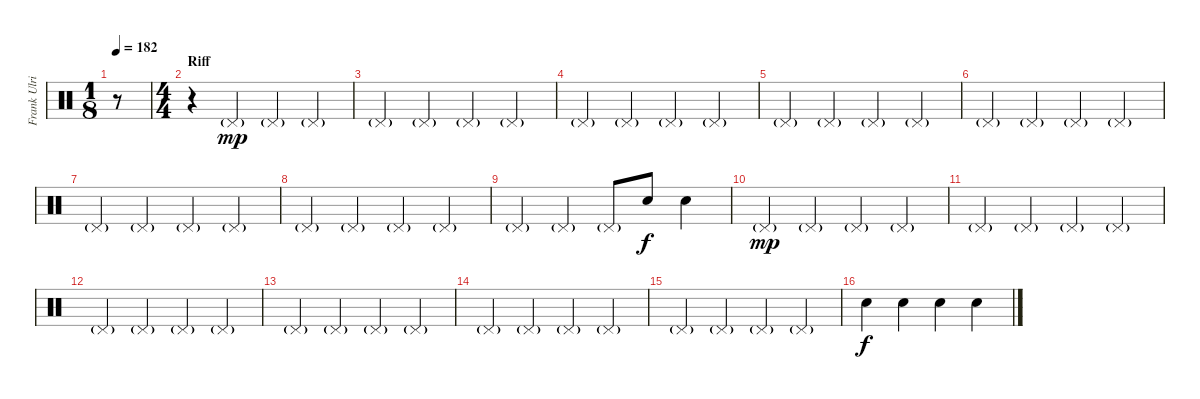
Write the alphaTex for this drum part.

\track ("Frank Ulrich" "Frank Ulri") {instrument percussion}
\staff {score}
\articulation defaults
\ts (1 8)
\tempo 182
\clef neutral
\ks c
r.8{dy mp} |
\ts (4 4)
\section ("" "Riff")
r.4 "Pedal Hi-Hat (hit)"{g}.4 "Pedal Hi-Hat (hit)"{g}.4 "Pedal Hi-Hat (hit)"{g}.4 |
"Pedal Hi-Hat (hit)"{g}.4 "Pedal Hi-Hat (hit)"{g}.4 "Pedal Hi-Hat (hit)"{g}.4 "Pedal Hi-Hat (hit)"{g}.4 |
"Pedal Hi-Hat (hit)"{g}.4 "Pedal Hi-Hat (hit)"{g}.4 "Pedal Hi-Hat (hit)"{g}.4 "Pedal Hi-Hat (hit)"{g}.4 |
"Pedal Hi-Hat (hit)"{g}.4 "Pedal Hi-Hat (hit)"{g}.4 "Pedal Hi-Hat (hit)"{g}.4 "Pedal Hi-Hat (hit)"{g}.4 |
"Pedal Hi-Hat (hit)"{g}.4 "Pedal Hi-Hat (hit)"{g}.4 "Pedal Hi-Hat (hit)"{g}.4 "Pedal Hi-Hat (hit)"{g}.4 |
"Pedal Hi-Hat (hit)"{g}.4 "Pedal Hi-Hat (hit)"{g}.4 "Pedal Hi-Hat (hit)"{g}.4 "Pedal Hi-Hat (hit)"{g}.4 |
"Pedal Hi-Hat (hit)"{g}.4 "Pedal Hi-Hat (hit)"{g}.4 "Pedal Hi-Hat (hit)"{g}.4 "Pedal Hi-Hat (hit)"{g}.4 |
"Pedal Hi-Hat (hit)"{g}.4 "Pedal Hi-Hat (hit)"{g}.4 "Pedal Hi-Hat (hit)"{g}.8 "Snare (hit) 2".8{dy f} "Snare (hit) 2".4 |
"Pedal Hi-Hat (hit)"{g}.4{dy mp} "Pedal Hi-Hat (hit)"{g}.4 "Pedal Hi-Hat (hit)"{g}.4 "Pedal Hi-Hat (hit)"{g}.4 |
"Pedal Hi-Hat (hit)"{g}.4 "Pedal Hi-Hat (hit)"{g}.4 "Pedal Hi-Hat (hit)"{g}.4 "Pedal Hi-Hat (hit)"{g}.4 |
"Pedal Hi-Hat (hit)"{g}.4 "Pedal Hi-Hat (hit)"{g}.4 "Pedal Hi-Hat (hit)"{g}.4 "Pedal Hi-Hat (hit)"{g}.4 |
"Pedal Hi-Hat (hit)"{g}.4 "Pedal Hi-Hat (hit)"{g}.4 "Pedal Hi-Hat (hit)"{g}.4 "Pedal Hi-Hat (hit)"{g}.4 |
"Pedal Hi-Hat (hit)"{g}.4 "Pedal Hi-Hat (hit)"{g}.4 "Pedal Hi-Hat (hit)"{g}.4 "Pedal Hi-Hat (hit)"{g}.4 |
"Pedal Hi-Hat (hit)"{g}.4 "Pedal Hi-Hat (hit)"{g}.4 "Pedal Hi-Hat (hit)"{g}.4 "Pedal Hi-Hat (hit)"{g}.4 |
"Snare (hit) 2".4{dy f} "Snare (hit) 2".4 "Snare (hit) 2".4 "Snare (hit) 2".4
